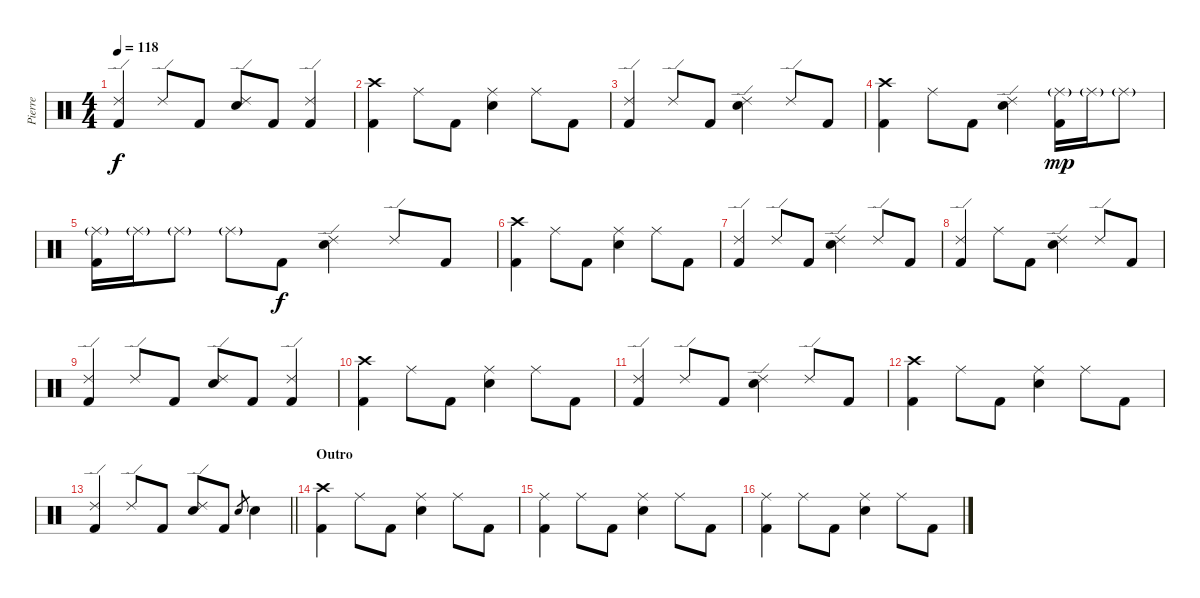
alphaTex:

\track ("Pierre" "Pierre") {instrument percussion}
\staff {score}
\articulation defaults
\ts (4 4)
\tempo 118
\clef neutral
\ks c
("Ride (edge) 2" "Kick (hit) 2").4{dy f} "Ride (edge) 2".8 "Kick (hit) 2".8 ("Ride (edge) 2" "Snare (hit) 2").8 "Kick (hit) 2".8 ("Ride (edge) 2" "Kick (hit) 2").4 |
("Crash high (hit)" "Kick (hit) 2").4 "Ride (middle)".8 "Kick (hit) 2".8 ("Ride (middle)" "Snare (hit) 2").4 "Ride (middle)".8 "Kick (hit) 2".8 |
("Ride (edge) 2" "Kick (hit) 2").4 "Ride (edge) 2".8 "Kick (hit) 2".8 ("Ride (edge) 2" "Snare (hit) 2").4 "Ride (edge) 2".8 "Kick (hit) 2".8 |
("Crash high (hit)" "Kick (hit) 2").4 "Ride (middle)".8 "Kick (hit) 2".8 ("Ride (edge) 2" "Snare (hit) 2").4 ("Ride (middle)"{g} "Kick (hit) 2").16{dy mp} "Ride (middle)"{g}.16 "Ride (middle)"{g}.8 |
("Ride (middle)"{g} "Kick (hit) 2").16 "Ride (middle)"{g}.16 "Ride (middle)"{g}.8 "Ride (middle)"{g}.8 "Kick (hit) 2".8{dy f} ("Ride (edge) 2" "Snare (hit) 2").4 "Ride (edge) 2".8 "Kick (hit) 2".8 |
("Crash high (hit)" "Kick (hit) 2").4 "Ride (middle)".8 "Kick (hit) 2".8 ("Ride (middle)" "Snare (hit) 2").4 "Ride (middle)".8 "Kick (hit) 2".8 |
("Ride (edge) 2" "Kick (hit) 2").4 "Ride (edge) 2".8 "Kick (hit) 2".8 ("Ride (edge) 2" "Snare (hit) 2").4 "Ride (edge) 2".8 "Kick (hit) 2".8 |
("Ride (edge) 2" "Kick (hit) 2").4 "Ride (middle)".8 "Kick (hit) 2".8 ("Ride (edge) 2" "Snare (hit) 2").4 "Ride (edge) 2".8 "Kick (hit) 2".8 |
("Ride (edge) 2" "Kick (hit) 2").4 "Ride (edge) 2".8 "Kick (hit) 2".8 ("Ride (edge) 2" "Snare (hit) 2").8 "Kick (hit) 2".8 ("Ride (edge) 2" "Kick (hit) 2").4 |
("Crash high (hit)" "Kick (hit) 2").4 "Ride (middle)".8 "Kick (hit) 2".8 ("Ride (middle)" "Snare (hit) 2").4 "Ride (middle)".8 "Kick (hit) 2".8 |
("Ride (edge) 2" "Kick (hit) 2").4 "Ride (edge) 2".8 "Kick (hit) 2".8 ("Ride (edge) 2" "Snare (hit) 2").4 "Ride (edge) 2".8 "Kick (hit) 2".8 |
("Crash high (hit)" "Kick (hit) 2").4 "Ride (middle)".8 "Kick (hit) 2".8 ("Ride (middle)" "Snare (hit) 2").4 "Ride (middle)".8 "Kick (hit) 2".8 |
\barLineRight lightlight
("Ride (edge) 2" "Kick (hit) 2").4 "Ride (edge) 2".8 "Kick (hit) 2".8 ("Ride (edge) 2" "Electric Snare (hit)").8 "Kick (hit) 2".8 "Snare (hit) 2".8{gr} "Snare (hit) 2".4 |
\section ("" "Outro")
("Crash high (hit)" "Kick (hit) 2").4 "Ride (middle)".8 "Kick (hit) 2".8 ("Ride (middle)" "Snare (hit) 2").4 "Ride (middle)".8 "Kick (hit) 2".8 |
("Ride (middle)" "Kick (hit) 2").4 "Ride (middle)".8 "Kick (hit) 2".8 ("Ride (middle)" "Snare (hit) 2").4 "Ride (middle)".8 "Kick (hit) 2".8 |
("Ride (middle)" "Kick (hit) 2").4 "Ride (middle)".8 "Kick (hit) 2".8 ("Ride (middle)" "Snare (hit) 2").4 "Ride (middle)".8 "Kick (hit) 2".8
